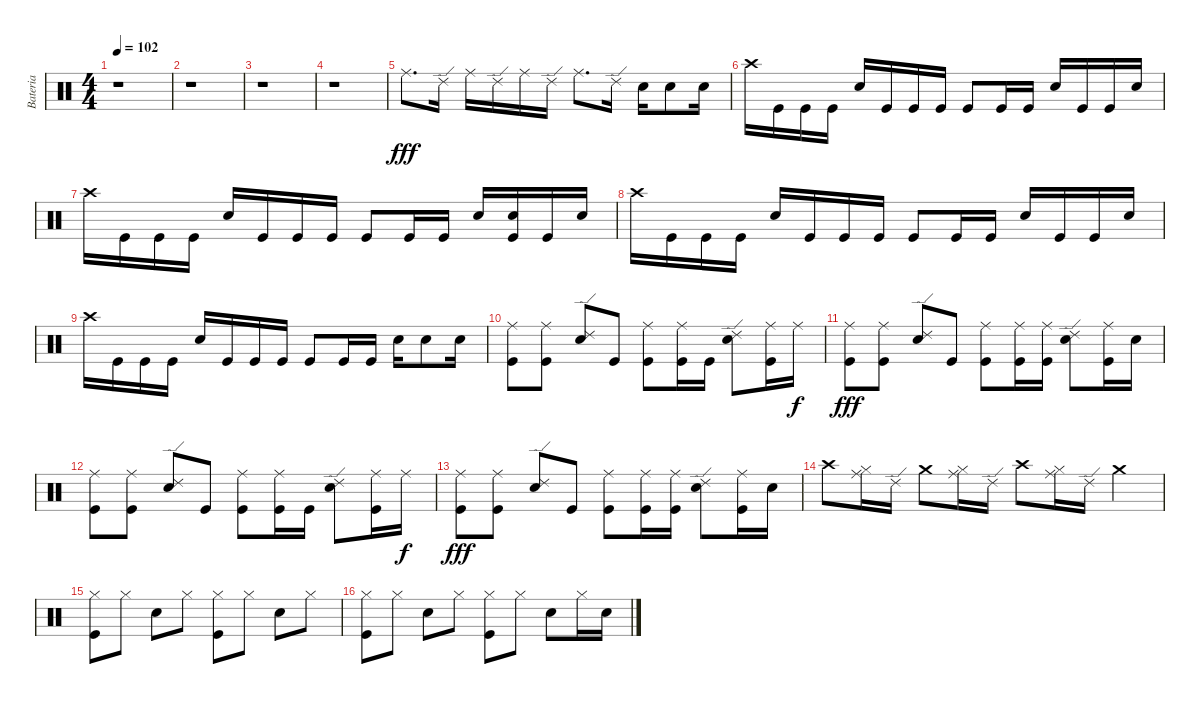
\track ("Bateria" "Bateria") {instrument percussion}
\staff {score}
\articulation defaults
\ts (4 4)
\tempo 102
\clef neutral
\ks c
r.1{dy fff} |
r.1 |
r.1 |
r.1 |
"Ride (middle)".8{d} "Ride (edge) 2".16 "Ride (middle)".16 "Ride (edge) 2".16 "Ride (middle)".16 "Ride (edge) 2".16 "Ride (middle)".8{d} "Ride (edge) 2".16 "Snare (hit) 2".16 "Snare (hit) 2".8 "Snare (hit) 2".16 |
"Crash high (hit)".16 "Kick (hit)".16 "Kick (hit)".16 "Kick (hit)".16 "Snare (hit) 2".16 "Kick (hit)".16 "Kick (hit)".16 "Kick (hit)".16 "Kick (hit)".8 "Kick (hit)".16 "Kick (hit)".16 "Snare (hit) 2".16 "Kick (hit)".16 "Kick (hit)".16 "Snare (hit) 2".16 |
"Crash high (hit)".16 "Kick (hit)".16 "Kick (hit)".16 "Kick (hit)".16 "Snare (hit) 2".16 "Kick (hit)".16 "Kick (hit)".16 "Kick (hit)".16 "Kick (hit)".8 "Kick (hit)".16 "Kick (hit)".16 "Snare (hit) 2".16 ("Kick (hit)" "Snare (hit) 2").16 "Kick (hit)".16 "Snare (hit) 2".16 |
"Crash high (hit)".16 "Kick (hit)".16 "Kick (hit)".16 "Kick (hit)".16 "Snare (hit) 2".16 "Kick (hit)".16 "Kick (hit)".16 "Kick (hit)".16 "Kick (hit)".8 "Kick (hit)".16 "Kick (hit)".16 "Snare (hit) 2".16 "Kick (hit)".16 "Kick (hit)".16 "Snare (hit) 2".16 |
"Crash high (hit)".16 "Kick (hit)".16 "Kick (hit)".16 "Kick (hit)".16 "Snare (hit) 2".16 "Kick (hit)".16 "Kick (hit)".16 "Kick (hit)".16 "Kick (hit)".8 "Kick (hit)".16 "Kick (hit)".16 "Snare (hit) 2".16 "Snare (hit) 2".8 "Snare (hit) 2".16 |
("Kick (hit)" "Ride (middle)").8 ("Kick (hit)" "Ride (middle)").8 ("Snare (hit) 2" "Ride (edge) 2").8 "Kick (hit)".8 ("Kick (hit)" "Ride (middle)").8 ("Kick (hit)" "Ride (middle)").16 "Kick (hit)".16 ("Snare (hit) 2" "Ride (edge) 2").8 ("Kick (hit)" "Ride (middle)").16 "Ride (middle)".16{dy f} |
("Kick (hit)" "Ride (middle)").8{dy fff} ("Kick (hit)" "Ride (middle)").8 ("Snare (hit) 2" "Ride (edge) 2").8 "Kick (hit)".8 ("Kick (hit)" "Ride (middle)").8 ("Kick (hit)" "Ride (middle)").16 ("Kick (hit)" "Ride (middle)").16 ("Snare (hit) 2" "Ride (edge) 2").8 ("Kick (hit)" "Ride (middle)").16 "Snare (hit) 2".16 |
("Kick (hit)" "Ride (middle)").8 ("Kick (hit)" "Ride (middle)").8 ("Snare (hit) 2" "Ride (edge) 2").8 "Kick (hit)".8 ("Kick (hit)" "Ride (middle)").8 ("Kick (hit)" "Ride (middle)").16 "Kick (hit)".16 ("Snare (hit) 2" "Ride (edge) 2").8 ("Kick (hit)" "Ride (middle)").16 "Ride (middle)".16{dy f} |
("Kick (hit)" "Ride (middle)").8{dy fff} ("Kick (hit)" "Ride (middle)").8 ("Snare (hit) 2" "Ride (edge) 2").8 "Kick (hit)".8 ("Kick (hit)" "Ride (middle)").8 ("Kick (hit)" "Ride (middle)").16 ("Kick (hit)" "Ride (middle)").16 ("Snare (hit) 2" "Ride (edge) 2").8 ("Kick (hit)" "Ride (middle)").16 "Snare (hit) 2".16 |
"Crash high (hit)".8 ("Ride (middle)" "Hi-Hat (closed)").16 "Ride (edge) 2".16 "Crash medium (hit)".8 ("Ride (middle)" "Hi-Hat (closed)").16 "Ride (edge) 2".16 "Crash high (hit)".8 ("Ride (middle)" "Hi-Hat (closed)").16 "Ride (edge) 2".16 "Crash medium (hit)".4 |
("Kick (hit)" "Hi-Hat (closed)").8 "Hi-Hat (closed)".8 "Snare (hit) 2".8 "Hi-Hat (closed)".8 ("Kick (hit)" "Hi-Hat (closed)").8 "Hi-Hat (closed)".8 "Snare (hit) 2".8 "Hi-Hat (closed)".8 |
("Kick (hit)" "Hi-Hat (closed)").8 "Hi-Hat (closed)".8 "Snare (hit) 2".8 "Hi-Hat (closed)".8 ("Kick (hit)" "Hi-Hat (closed)").8 "Hi-Hat (closed)".8 "Snare (hit) 2".8 "Hi-Hat (closed)".16 "Snare (hit) 2".16
